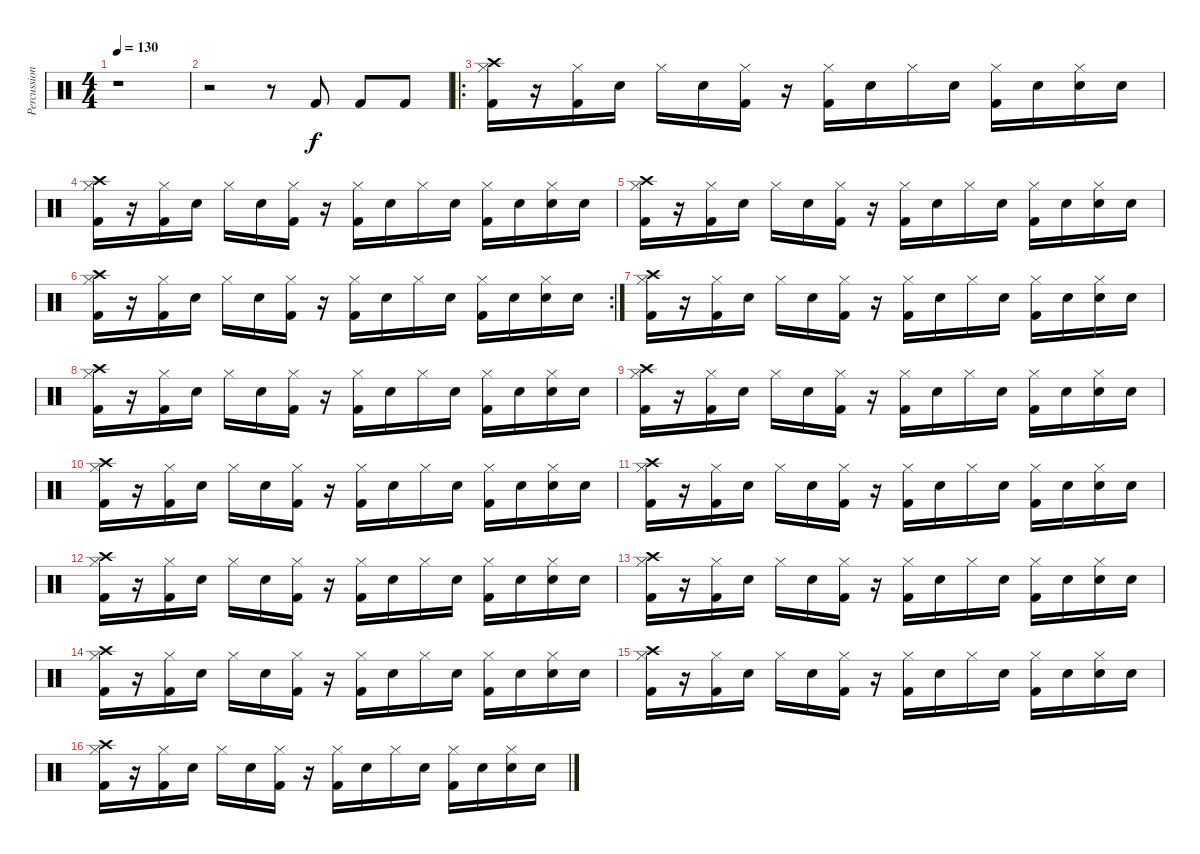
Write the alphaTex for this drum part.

\track ("Percussion" "Percussion") {instrument percussion}
\staff {score}
\articulation defaults
\ts (4 4)
\tempo 130
\clef neutral
\ks c
r.1{dy f} |
r.2 r.8 "Kick (hit) 2".8 "Kick (hit) 2".8 "Kick (hit) 2".8 |
\ro
("Crash high (hit)" "Hi-Hat (closed)" "Kick (hit) 2").16 r.16 ("Hi-Hat (closed)" "Kick (hit) 2").16 "Snare (hit) 2".16 "Hi-Hat (closed)".16 "Snare (hit) 2".16 ("Hi-Hat (closed)" "Kick (hit) 2").16 r.16 ("Hi-Hat (closed)" "Kick (hit) 2").16 "Snare (hit) 2".16 "Hi-Hat (closed)".16 "Snare (hit) 2".16 ("Hi-Hat (closed)" "Kick (hit) 2").16 "Snare (hit) 2".16 ("Hi-Hat (closed)" "Snare (hit) 2").16 "Snare (hit) 2".16 |
("Crash high (hit)" "Hi-Hat (closed)" "Kick (hit) 2").16 r.16 ("Hi-Hat (closed)" "Kick (hit) 2").16 "Snare (hit) 2".16 "Hi-Hat (closed)".16 "Snare (hit) 2".16 ("Hi-Hat (closed)" "Kick (hit) 2").16 r.16 ("Hi-Hat (closed)" "Kick (hit) 2").16 "Snare (hit) 2".16 "Hi-Hat (closed)".16 "Snare (hit) 2".16 ("Hi-Hat (closed)" "Kick (hit) 2").16 "Snare (hit) 2".16 ("Hi-Hat (closed)" "Snare (hit) 2").16 "Snare (hit) 2".16 |
("Crash high (hit)" "Hi-Hat (closed)" "Kick (hit) 2").16 r.16 ("Hi-Hat (closed)" "Kick (hit) 2").16 "Snare (hit) 2".16 "Hi-Hat (closed)".16 "Snare (hit) 2".16 ("Hi-Hat (closed)" "Kick (hit) 2").16 r.16 ("Hi-Hat (closed)" "Kick (hit) 2").16 "Snare (hit) 2".16 "Hi-Hat (closed)".16 "Snare (hit) 2".16 ("Hi-Hat (closed)" "Kick (hit) 2").16 "Snare (hit) 2".16 ("Hi-Hat (closed)" "Snare (hit) 2").16 "Snare (hit) 2".16 |
\rc 2
("Crash high (hit)" "Hi-Hat (closed)" "Kick (hit) 2").16 r.16 ("Hi-Hat (closed)" "Kick (hit) 2").16 "Snare (hit) 2".16 "Hi-Hat (closed)".16 "Snare (hit) 2".16 ("Hi-Hat (closed)" "Kick (hit) 2").16 r.16 ("Hi-Hat (closed)" "Kick (hit) 2").16 "Snare (hit) 2".16 "Hi-Hat (closed)".16 "Snare (hit) 2".16 ("Hi-Hat (closed)" "Kick (hit) 2").16 "Snare (hit) 2".16 ("Hi-Hat (closed)" "Snare (hit) 2").16 "Snare (hit) 2".16 |
("Crash high (hit)" "Hi-Hat (closed)" "Kick (hit) 2").16 r.16 ("Hi-Hat (closed)" "Kick (hit) 2").16 "Snare (hit) 2".16 "Hi-Hat (closed)".16 "Snare (hit) 2".16 ("Hi-Hat (closed)" "Kick (hit) 2").16 r.16 ("Hi-Hat (closed)" "Kick (hit) 2").16 "Snare (hit) 2".16 "Hi-Hat (closed)".16 "Snare (hit) 2".16 ("Hi-Hat (closed)" "Kick (hit) 2").16 "Snare (hit) 2".16 ("Hi-Hat (closed)" "Snare (hit) 2").16 "Snare (hit) 2".16 |
("Crash high (hit)" "Hi-Hat (closed)" "Kick (hit) 2").16 r.16 ("Hi-Hat (closed)" "Kick (hit) 2").16 "Snare (hit) 2".16 "Hi-Hat (closed)".16 "Snare (hit) 2".16 ("Hi-Hat (closed)" "Kick (hit) 2").16 r.16 ("Hi-Hat (closed)" "Kick (hit) 2").16 "Snare (hit) 2".16 "Hi-Hat (closed)".16 "Snare (hit) 2".16 ("Hi-Hat (closed)" "Kick (hit) 2").16 "Snare (hit) 2".16 ("Hi-Hat (closed)" "Snare (hit) 2").16 "Snare (hit) 2".16 |
("Crash high (hit)" "Hi-Hat (closed)" "Kick (hit) 2").16 r.16 ("Hi-Hat (closed)" "Kick (hit) 2").16 "Snare (hit) 2".16 "Hi-Hat (closed)".16 "Snare (hit) 2".16 ("Hi-Hat (closed)" "Kick (hit) 2").16 r.16 ("Hi-Hat (closed)" "Kick (hit) 2").16 "Snare (hit) 2".16 "Hi-Hat (closed)".16 "Snare (hit) 2".16 ("Hi-Hat (closed)" "Kick (hit) 2").16 "Snare (hit) 2".16 ("Hi-Hat (closed)" "Snare (hit) 2").16 "Snare (hit) 2".16 |
("Crash high (hit)" "Hi-Hat (closed)" "Kick (hit) 2").16 r.16 ("Hi-Hat (closed)" "Kick (hit) 2").16 "Snare (hit) 2".16 "Hi-Hat (closed)".16 "Snare (hit) 2".16 ("Hi-Hat (closed)" "Kick (hit) 2").16 r.16 ("Hi-Hat (closed)" "Kick (hit) 2").16 "Snare (hit) 2".16 "Hi-Hat (closed)".16 "Snare (hit) 2".16 ("Hi-Hat (closed)" "Kick (hit) 2").16 "Snare (hit) 2".16 ("Hi-Hat (closed)" "Snare (hit) 2").16 "Snare (hit) 2".16 |
("Crash high (hit)" "Hi-Hat (closed)" "Kick (hit) 2").16 r.16 ("Hi-Hat (closed)" "Kick (hit) 2").16 "Snare (hit) 2".16 "Hi-Hat (closed)".16 "Snare (hit) 2".16 ("Hi-Hat (closed)" "Kick (hit) 2").16 r.16 ("Hi-Hat (closed)" "Kick (hit) 2").16 "Snare (hit) 2".16 "Hi-Hat (closed)".16 "Snare (hit) 2".16 ("Hi-Hat (closed)" "Kick (hit) 2").16 "Snare (hit) 2".16 ("Hi-Hat (closed)" "Snare (hit) 2").16 "Snare (hit) 2".16 |
("Crash high (hit)" "Hi-Hat (closed)" "Kick (hit) 2").16 r.16 ("Hi-Hat (closed)" "Kick (hit) 2").16 "Snare (hit) 2".16 "Hi-Hat (closed)".16 "Snare (hit) 2".16 ("Hi-Hat (closed)" "Kick (hit) 2").16 r.16 ("Hi-Hat (closed)" "Kick (hit) 2").16 "Snare (hit) 2".16 "Hi-Hat (closed)".16 "Snare (hit) 2".16 ("Hi-Hat (closed)" "Kick (hit) 2").16 "Snare (hit) 2".16 ("Hi-Hat (closed)" "Snare (hit) 2").16 "Snare (hit) 2".16 |
("Crash high (hit)" "Hi-Hat (closed)" "Kick (hit) 2").16 r.16 ("Hi-Hat (closed)" "Kick (hit) 2").16 "Snare (hit) 2".16 "Hi-Hat (closed)".16 "Snare (hit) 2".16 ("Hi-Hat (closed)" "Kick (hit) 2").16 r.16 ("Hi-Hat (closed)" "Kick (hit) 2").16 "Snare (hit) 2".16 "Hi-Hat (closed)".16 "Snare (hit) 2".16 ("Hi-Hat (closed)" "Kick (hit) 2").16 "Snare (hit) 2".16 ("Hi-Hat (closed)" "Snare (hit) 2").16 "Snare (hit) 2".16 |
("Crash high (hit)" "Hi-Hat (closed)" "Kick (hit) 2").16 r.16 ("Hi-Hat (closed)" "Kick (hit) 2").16 "Snare (hit) 2".16 "Hi-Hat (closed)".16 "Snare (hit) 2".16 ("Hi-Hat (closed)" "Kick (hit) 2").16 r.16 ("Hi-Hat (closed)" "Kick (hit) 2").16 "Snare (hit) 2".16 "Hi-Hat (closed)".16 "Snare (hit) 2".16 ("Hi-Hat (closed)" "Kick (hit) 2").16 "Snare (hit) 2".16 ("Hi-Hat (closed)" "Snare (hit) 2").16 "Snare (hit) 2".16 |
("Crash high (hit)" "Hi-Hat (closed)" "Kick (hit) 2").16 r.16 ("Hi-Hat (closed)" "Kick (hit) 2").16 "Snare (hit) 2".16 "Hi-Hat (closed)".16 "Snare (hit) 2".16 ("Hi-Hat (closed)" "Kick (hit) 2").16 r.16 ("Hi-Hat (closed)" "Kick (hit) 2").16 "Snare (hit) 2".16 "Hi-Hat (closed)".16 "Snare (hit) 2".16 ("Hi-Hat (closed)" "Kick (hit) 2").16 "Snare (hit) 2".16 ("Hi-Hat (closed)" "Snare (hit) 2").16 "Snare (hit) 2".16 |
("Crash high (hit)" "Hi-Hat (closed)" "Kick (hit) 2").16 r.16 ("Hi-Hat (closed)" "Kick (hit) 2").16 "Snare (hit) 2".16 "Hi-Hat (closed)".16 "Snare (hit) 2".16 ("Hi-Hat (closed)" "Kick (hit) 2").16 r.16 ("Hi-Hat (closed)" "Kick (hit) 2").16 "Snare (hit) 2".16 "Hi-Hat (closed)".16 "Snare (hit) 2".16 ("Hi-Hat (closed)" "Kick (hit) 2").16 "Snare (hit) 2".16 ("Hi-Hat (closed)" "Snare (hit) 2").16 "Snare (hit) 2".16
